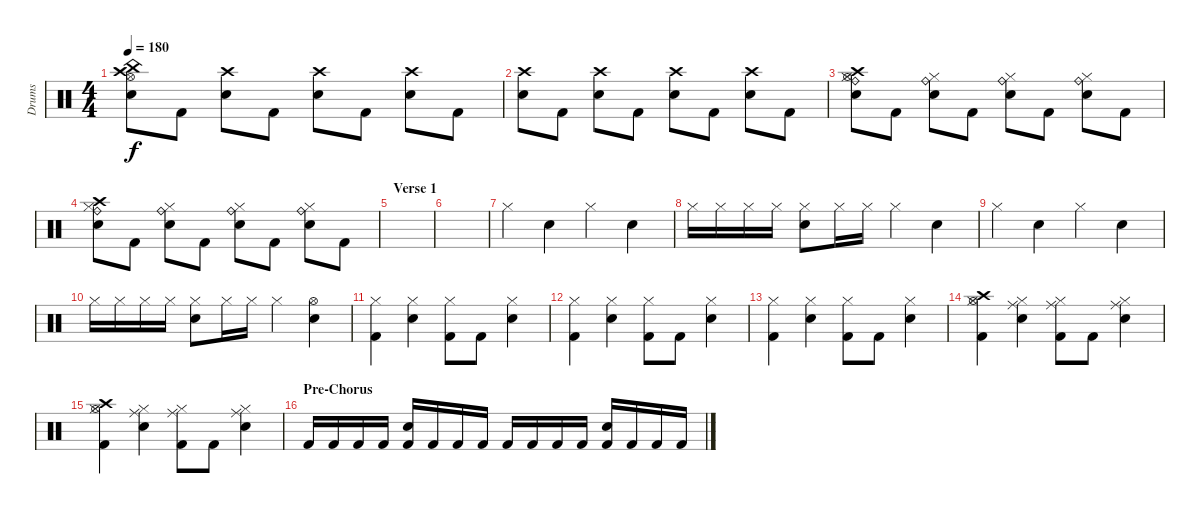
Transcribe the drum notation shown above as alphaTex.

\track ("Drums" "Drums") {instrument percussion}
\staff {score}
\articulation defaults
\ts (4 4)
\tempo 180
\clef neutral
\ks c
("Hi-Hat (open)" "China (hit)" "Crash high (hit)" "Snare (hit) 2").8{dy f} "Kick (hit) 2".8 ("Crash high (hit)" "Snare (hit) 2").8 "Kick (hit) 2".8 ("Crash high (hit)" "Snare (hit) 2").8 "Kick (hit) 2".8 ("Crash high (hit)" "Snare (hit) 2").8 "Kick (hit) 2".8 |
("Crash high (hit)" "Snare (hit) 2").8 "Kick (hit) 2".8 ("Crash high (hit)" "Snare (hit) 2").8 "Kick (hit) 2".8 ("Crash high (hit)" "Snare (hit) 2").8 "Kick (hit) 2".8 ("Crash high (hit)" "Snare (hit) 2").8 "Kick (hit) 2".8 |
("Hi-Hat (open)" "Crash high (hit)" "Snare (hit) 2" "Hi-Hat (closed)" "Ride (bell)").8 "Kick (hit) 2".8 ("Snare (hit) 2" "Hi-Hat (closed)" "Ride (bell)").8 "Kick (hit) 2".8 ("Snare (hit) 2" "Hi-Hat (closed)" "Ride (bell)").8 "Kick (hit) 2".8 ("Snare (hit) 2" "Hi-Hat (closed)" "Ride (bell)").8 "Kick (hit) 2".8 |
("Crash high (hit)" "Snare (hit) 2" "Hi-Hat (closed)" "Ride (bell)").8 "Kick (hit) 2".8 ("Snare (hit) 2" "Hi-Hat (closed)" "Ride (bell)").8 "Kick (hit) 2".8 ("Snare (hit) 2" "Hi-Hat (closed)" "Ride (bell)").8 "Kick (hit) 2".8 ("Snare (hit) 2" "Hi-Hat (closed)" "Ride (bell)").8 "Kick (hit) 2".8 |
\section ("" "Verse 1")
|
|
"Hi-Hat (closed)".4 "Snare (hit) 2".4 "Hi-Hat (closed)".4 "Snare (hit) 2".4 |
"Hi-Hat (closed)".16 "Hi-Hat (closed)".16 "Hi-Hat (closed)".16 "Hi-Hat (closed)".16 ("Snare (hit) 2" "Hi-Hat (closed)").8 "Hi-Hat (closed)".16 "Hi-Hat (closed)".16 "Hi-Hat (closed)".4 "Snare (hit) 2".4 |
"Hi-Hat (closed)".4 "Snare (hit) 2".4 "Hi-Hat (closed)".4 "Snare (hit) 2".4 |
"Hi-Hat (closed)".16 "Hi-Hat (closed)".16 "Hi-Hat (closed)".16 "Hi-Hat (closed)".16 ("Snare (hit) 2" "Hi-Hat (closed)").8 "Hi-Hat (closed)".16 "Hi-Hat (closed)".16 "Hi-Hat (closed)".4 ("Hi-Hat (open)" "Snare (hit) 2").4 |
("Hi-Hat (closed)" "Kick (hit) 2").4 ("Hi-Hat (closed)" "Snare (hit) 2").4 ("Hi-Hat (closed)" "Kick (hit) 2").8 "Kick (hit) 2".8 ("Hi-Hat (closed)" "Snare (hit) 2").4 |
("Hi-Hat (closed)" "Kick (hit) 2").4 ("Hi-Hat (closed)" "Snare (hit) 2").4 ("Hi-Hat (closed)" "Kick (hit) 2").8 "Kick (hit) 2".8 ("Hi-Hat (closed)" "Snare (hit) 2").4 |
("Hi-Hat (closed)" "Kick (hit) 2").4 ("Hi-Hat (closed)" "Snare (hit) 2").4 ("Hi-Hat (closed)" "Kick (hit) 2").8 "Kick (hit) 2".8 ("Hi-Hat (closed)" "Snare (hit) 2").4 |
("Hi-Hat (open)" "Crash high (hit)" "Hi-Hat (closed)" "Kick (hit) 2").4 ("Ride (middle)" "Hi-Hat (closed)" "Snare (hit) 2").4 ("Ride (middle)" "Hi-Hat (closed)" "Kick (hit) 2").8 "Kick (hit) 2".8 ("Ride (middle)" "Hi-Hat (closed)" "Snare (hit) 2").4 |
("Hi-Hat (open)" "Crash high (hit)" "Hi-Hat (closed)" "Kick (hit) 2").4 ("Ride (middle)" "Hi-Hat (closed)" "Snare (hit) 2").4 ("Ride (middle)" "Hi-Hat (closed)" "Kick (hit) 2").8 "Kick (hit) 2".8 ("Ride (middle)" "Hi-Hat (closed)" "Snare (hit) 2").4 |
\section ("" "Pre-Chorus")
"Kick (hit) 2".16 "Kick (hit) 2".16 "Kick (hit) 2".16 "Kick (hit) 2".16 ("Snare (hit) 2" "Kick (hit) 2").16 "Kick (hit) 2".16 "Kick (hit) 2".16 "Kick (hit) 2".16 "Kick (hit) 2".16 "Kick (hit) 2".16 "Kick (hit) 2".16 "Kick (hit) 2".16 ("Snare (hit) 2" "Kick (hit) 2").16 "Kick (hit) 2".16 "Kick (hit) 2".16 "Kick (hit) 2".16
